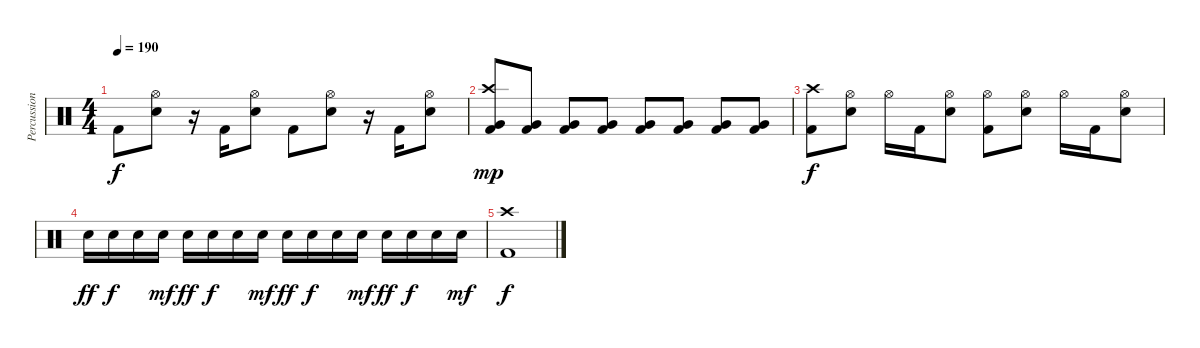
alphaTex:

\track ("Percussions" "Percussion") {instrument percussion}
\staff {score}
\articulation defaults
\ts (4 4)
\tempo 190
\clef neutral
\ks c "Kick (hit) 2".8{dy f}
("Hi-Hat (open)" "Electric Snare (hit)").8 r.16 "Kick (hit) 2".16 ("Hi-Hat (open)" "Electric Snare (hit)").8 "Kick (hit) 2".8 ("Hi-Hat (open)" "Electric Snare (hit)").8 r.16 "Kick (hit) 2".16 ("Hi-Hat (open)" "Electric Snare (hit)").8 |
("Crash high (hit)" "Very Low Tom (hit)" "Kick (hit) 2").8{dy mp} ("Very Low Tom (hit)" "Kick (hit) 2").8 ("Very Low Tom (hit)" "Kick (hit) 2").8 ("Very Low Tom (hit)" "Kick (hit) 2").8 ("Very Low Tom (hit)" "Kick (hit) 2").8 ("Very Low Tom (hit)" "Kick (hit) 2").8 ("Very Low Tom (hit)" "Kick (hit) 2").8 ("Very Low Tom (hit)" "Kick (hit) 2").8 |
("Crash high (hit)" "Kick (hit) 2").8{dy f} ("Hi-Hat (open)" "Electric Snare (hit)").8 "Hi-Hat (open)".16 "Kick (hit) 2".16 ("Hi-Hat (open)" "Electric Snare (hit)").8 ("Hi-Hat (open)" "Kick (hit) 2").8 ("Hi-Hat (open)" "Electric Snare (hit)").8 "Hi-Hat (open)".16 "Kick (hit) 2".16 ("Hi-Hat (open)" "Electric Snare (hit)").8 |
"Electric Snare (hit)".16{dy ff} "Electric Snare (hit)".16{dy f} "Electric Snare (hit)".16 "Electric Snare (hit)".16{dy mf} "Electric Snare (hit)".16{dy ff} "Electric Snare (hit)".16{dy f} "Electric Snare (hit)".16 "Electric Snare (hit)".16{dy mf} "Electric Snare (hit)".16{dy ff} "Electric Snare (hit)".16{dy f} "Electric Snare (hit)".16 "Electric Snare (hit)".16{dy mf} "Electric Snare (hit)".16{dy ff} "Electric Snare (hit)".16{dy f} "Electric Snare (hit)".16 "Electric Snare (hit)".16{dy mf} |
("Crash high (hit)" "Kick (hit) 2").1{dy f}
